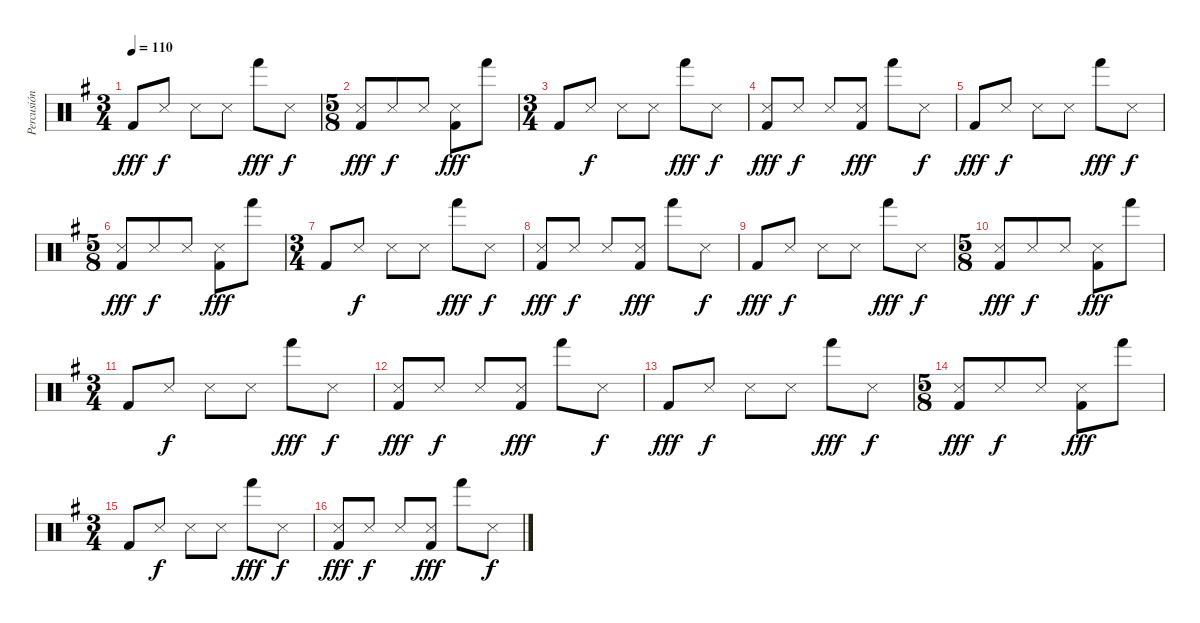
\track ("Percusión" "Percusión") {instrument percussion}
\staff {score}
\articulation defaults
\ts (3 4)
\tempo 110
\clef neutral
\ks g "Kick (hit) 2".8{dy fff} "Metronome (hit)".8{dy f} "Metronome (hit)".8 "Metronome (hit)".8 "Hand (hit)".8{dy fff} "Metronome (hit)".8{dy f}
|
\ts (5 8)
("Metronome (hit)" "Kick (hit) 2").8{dy fff} "Metronome (hit)".8{dy f} "Metronome (hit)".8 ("Metronome (hit)" "Kick (hit) 2").8{dy fff} "Hand (hit)".8 |
\ts (3 4)
"Kick (hit) 2".8 "Metronome (hit)".8{dy f} "Metronome (hit)".8 "Metronome (hit)".8 "Hand (hit)".8{dy fff} "Metronome (hit)".8{dy f} |
("Metronome (hit)" "Kick (hit) 2").8{dy fff} "Metronome (hit)".8{dy f} "Metronome (hit)".8 ("Metronome (hit)" "Kick (hit) 2").8{dy fff} "Hand (hit)".8 "Metronome (hit)".8{dy f} |
"Kick (hit) 2".8{dy fff} "Metronome (hit)".8{dy f} "Metronome (hit)".8 "Metronome (hit)".8 "Hand (hit)".8{dy fff} "Metronome (hit)".8{dy f} |
\ts (5 8)
("Metronome (hit)" "Kick (hit) 2").8{dy fff} "Metronome (hit)".8{dy f} "Metronome (hit)".8 ("Metronome (hit)" "Kick (hit) 2").8{dy fff} "Hand (hit)".8 |
\ts (3 4)
"Kick (hit) 2".8 "Metronome (hit)".8{dy f} "Metronome (hit)".8 "Metronome (hit)".8 "Hand (hit)".8{dy fff} "Metronome (hit)".8{dy f} |
("Metronome (hit)" "Kick (hit) 2").8{dy fff} "Metronome (hit)".8{dy f} "Metronome (hit)".8 ("Metronome (hit)" "Kick (hit) 2").8{dy fff} "Hand (hit)".8 "Metronome (hit)".8{dy f} |
"Kick (hit) 2".8{dy fff} "Metronome (hit)".8{dy f} "Metronome (hit)".8 "Metronome (hit)".8 "Hand (hit)".8{dy fff} "Metronome (hit)".8{dy f} |
\ts (5 8)
("Metronome (hit)" "Kick (hit) 2").8{dy fff} "Metronome (hit)".8{dy f} "Metronome (hit)".8 ("Metronome (hit)" "Kick (hit) 2").8{dy fff} "Hand (hit)".8 |
\ts (3 4)
"Kick (hit) 2".8 "Metronome (hit)".8{dy f} "Metronome (hit)".8 "Metronome (hit)".8 "Hand (hit)".8{dy fff} "Metronome (hit)".8{dy f} |
("Metronome (hit)" "Kick (hit) 2").8{dy fff} "Metronome (hit)".8{dy f} "Metronome (hit)".8 ("Metronome (hit)" "Kick (hit) 2").8{dy fff} "Hand (hit)".8 "Metronome (hit)".8{dy f} |
"Kick (hit) 2".8{dy fff} "Metronome (hit)".8{dy f} "Metronome (hit)".8 "Metronome (hit)".8 "Hand (hit)".8{dy fff} "Metronome (hit)".8{dy f} |
\ts (5 8)
("Metronome (hit)" "Kick (hit) 2").8{dy fff} "Metronome (hit)".8{dy f} "Metronome (hit)".8 ("Metronome (hit)" "Kick (hit) 2").8{dy fff} "Hand (hit)".8 |
\ts (3 4)
"Kick (hit) 2".8 "Metronome (hit)".8{dy f} "Metronome (hit)".8 "Metronome (hit)".8 "Hand (hit)".8{dy fff} "Metronome (hit)".8{dy f} |
("Metronome (hit)" "Kick (hit) 2").8{dy fff} "Metronome (hit)".8{dy f} "Metronome (hit)".8 ("Metronome (hit)" "Kick (hit) 2").8{dy fff} "Hand (hit)".8 "Metronome (hit)".8{dy f}
